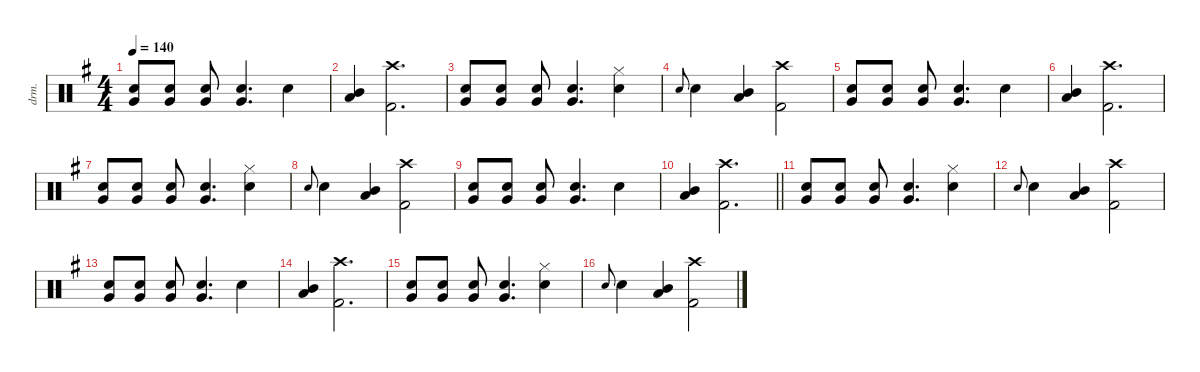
\defaultSystemsLayout 4
\hideDynamics
\bracketExtendMode nobrackets
\otherSystemsTrackNameOrientation horizontal
\track ("Drums" "drm.") {defaultSystemsLayout 4 instrument percussion}
\staff {score}
\articulation defaults
\ts (4 4)
\tempo 140
\clef neutral
\ks eminor
("Very Low Tom (hit)"{acc forcenatural} "Snare (hit) 2"{acc forcenatural}).8{dy f beam Up} ("Very Low Tom (hit)"{acc forcenatural} "Snare (hit) 2"{acc forcenatural}).8{beam Up} ("Very Low Tom (hit)"{acc forcenatural} "Snare (hit) 2"{acc forcenatural}).8{beam Up} ("Very Low Tom (hit)"{acc forcenatural} "Snare (hit) 2"{acc forcenatural}).4{d beam Up} "Snare (hit) 2"{acc forcenatural}.4{beam Down} |
("Mid Tom (hit)"{acc forcenatural} "Low Tom (hit)"{acc forcenatural}).4{beam Up} ("Crash high (hit)"{acc forcenatural} "Kick (hit) 2"{acc forcenatural}).2{d beam Down} |
("Very Low Tom (hit)"{acc forcenatural} "Snare (hit) 2"{acc forcenatural}).8{beam Up} ("Very Low Tom (hit)"{acc forcenatural} "Snare (hit) 2"{acc forcenatural}).8{beam Up} ("Very Low Tom (hit)"{acc forcenatural} "Snare (hit) 2"{acc forcenatural}).8{beam Up} ("Very Low Tom (hit)"{acc forcenatural} "Snare (hit) 2"{acc forcenatural}).4{d beam Up} ("Hi-Hat (closed)"{acc forcenatural} "Snare (hit) 2"{acc forcenatural}).4{beam Down} |
"Snare (hit) 2"{acc forcenatural}.8{gr onbeat dy fff beam Up} "Snare (hit) 2"{acc forcenatural}.4{dy ff beam Down} ("Mid Tom (hit)"{acc forcenatural} "Low Tom (hit)"{acc forcenatural}).4{dy f beam Up} ("Crash high (hit)"{acc forcenatural} "Kick (hit) 2"{acc forcenatural}).2{beam Down} |
("Very Low Tom (hit)"{acc forcenatural} "Snare (hit) 2"{acc forcenatural}).8{beam Up} ("Very Low Tom (hit)"{acc forcenatural} "Snare (hit) 2"{acc forcenatural}).8{beam Up} ("Very Low Tom (hit)"{acc forcenatural} "Snare (hit) 2"{acc forcenatural}).8{beam Up} ("Very Low Tom (hit)"{acc forcenatural} "Snare (hit) 2"{acc forcenatural}).4{d beam Up} "Snare (hit) 2"{acc forcenatural}.4{beam Down} |
("Mid Tom (hit)"{acc forcenatural} "Low Tom (hit)"{acc forcenatural}).4{beam Up} ("Crash high (hit)"{acc forcenatural} "Kick (hit) 2"{acc forcenatural}).2{d beam Down} |
("Very Low Tom (hit)"{acc forcenatural} "Snare (hit) 2"{acc forcenatural}).8{beam Up} ("Very Low Tom (hit)"{acc forcenatural} "Snare (hit) 2"{acc forcenatural}).8{beam Up} ("Very Low Tom (hit)"{acc forcenatural} "Snare (hit) 2"{acc forcenatural}).8{beam Up} ("Very Low Tom (hit)"{acc forcenatural} "Snare (hit) 2"{acc forcenatural}).4{d beam Up} ("Hi-Hat (closed)"{acc forcenatural} "Snare (hit) 2"{acc forcenatural}).4{beam Down} |
"Snare (hit) 2"{acc forcenatural}.8{gr onbeat dy fff beam Up} "Snare (hit) 2"{acc forcenatural}.4{dy ff beam Down} ("Mid Tom (hit)"{acc forcenatural} "Low Tom (hit)"{acc forcenatural}).4{dy f beam Up} ("Crash high (hit)"{acc forcenatural} "Kick (hit) 2"{acc forcenatural}).2{beam Down} |
("Very Low Tom (hit)"{acc forcenatural} "Snare (hit) 2"{acc forcenatural}).8{beam Up} ("Very Low Tom (hit)"{acc forcenatural} "Snare (hit) 2"{acc forcenatural}).8{beam Up} ("Very Low Tom (hit)"{acc forcenatural} "Snare (hit) 2"{acc forcenatural}).8{beam Up} ("Very Low Tom (hit)"{acc forcenatural} "Snare (hit) 2"{acc forcenatural}).4{d beam Up} "Snare (hit) 2"{acc forcenatural}.4{beam Down} |
\barLineRight lightlight
("Mid Tom (hit)"{acc forcenatural} "Low Tom (hit)"{acc forcenatural}).4{beam Up} ("Crash high (hit)"{acc forcenatural} "Kick (hit) 2"{acc forcenatural}).2{d beam Down} |
("Very Low Tom (hit)"{acc forcenatural} "Snare (hit) 2"{acc forcenatural}).8{beam Up} ("Very Low Tom (hit)"{acc forcenatural} "Snare (hit) 2"{acc forcenatural}).8{beam Up} ("Very Low Tom (hit)"{acc forcenatural} "Snare (hit) 2"{acc forcenatural}).8{beam Up} ("Very Low Tom (hit)"{acc forcenatural} "Snare (hit) 2"{acc forcenatural}).4{d beam Up} ("Hi-Hat (closed)"{acc forcenatural} "Snare (hit) 2"{acc forcenatural}).4{beam Down} |
"Snare (hit) 2"{acc forcenatural}.8{gr onbeat dy fff beam Up} "Snare (hit) 2"{acc forcenatural}.4{dy ff beam Down} ("Mid Tom (hit)"{acc forcenatural} "Low Tom (hit)"{acc forcenatural}).4{dy f beam Up} ("Crash high (hit)"{acc forcenatural} "Kick (hit) 2"{acc forcenatural}).2{beam Down} |
("Very Low Tom (hit)"{acc forcenatural} "Snare (hit) 2"{acc forcenatural}).8{beam Up} ("Very Low Tom (hit)"{acc forcenatural} "Snare (hit) 2"{acc forcenatural}).8{beam Up} ("Very Low Tom (hit)"{acc forcenatural} "Snare (hit) 2"{acc forcenatural}).8{beam Up} ("Very Low Tom (hit)"{acc forcenatural} "Snare (hit) 2"{acc forcenatural}).4{d beam Up} "Snare (hit) 2"{acc forcenatural}.4{beam Down} |
("Mid Tom (hit)"{acc forcenatural} "Low Tom (hit)"{acc forcenatural}).4{beam Up} ("Crash high (hit)"{acc forcenatural} "Kick (hit) 2"{acc forcenatural}).2{d beam Down} |
("Very Low Tom (hit)"{acc forcenatural} "Snare (hit) 2"{acc forcenatural}).8{beam Up} ("Very Low Tom (hit)"{acc forcenatural} "Snare (hit) 2"{acc forcenatural}).8{beam Up} ("Very Low Tom (hit)"{acc forcenatural} "Snare (hit) 2"{acc forcenatural}).8{beam Up} ("Very Low Tom (hit)"{acc forcenatural} "Snare (hit) 2"{acc forcenatural}).4{d beam Up} ("Hi-Hat (closed)"{acc forcenatural} "Snare (hit) 2"{acc forcenatural}).4{beam Down} |
"Snare (hit) 2"{acc forcenatural}.8{gr onbeat dy fff beam Up} "Snare (hit) 2"{acc forcenatural}.4{dy ff beam Down} ("Mid Tom (hit)"{acc forcenatural} "Low Tom (hit)"{acc forcenatural}).4{dy f beam Up} ("Crash high (hit)"{acc forcenatural} "Kick (hit) 2"{acc forcenatural}).2{beam Down}
